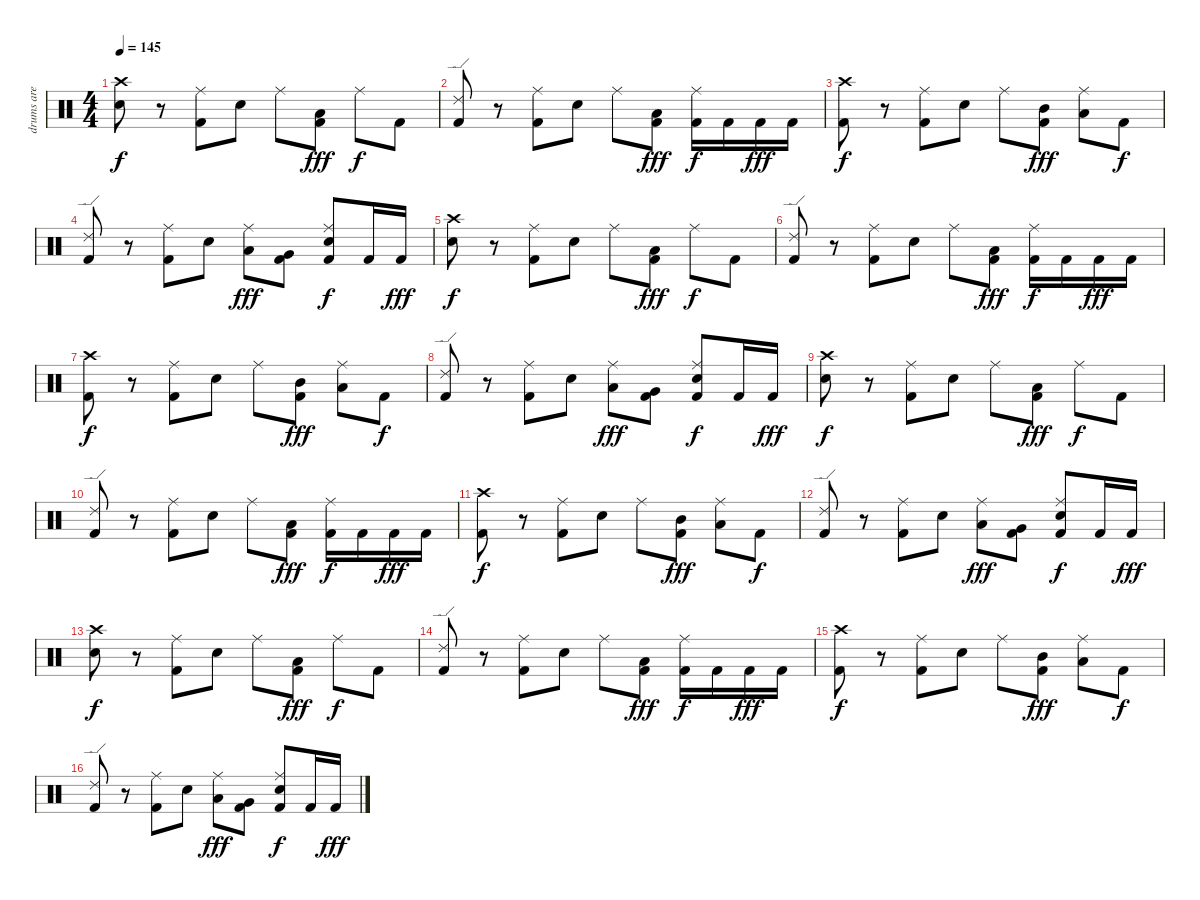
\track ("drums are cool   >.<" "drums are ") {instrument percussion}
\staff {score}
\articulation defaults
\ts (4 4)
\tempo 145
\clef neutral
\ks c
("Crash high (hit)" "Snare (hit) 2").8{dy f volume 14} r.8 ("Ride (middle)" "Kick (hit) 2").8 "Snare (hit) 2".8 "Ride (middle)".8 ("Low Tom (hit)" "Kick (hit) 2").8{dy fff} "Ride (middle)".8{dy f} "Kick (hit) 2".8 |
("Ride (edge) 2" "Kick (hit) 2").8 r.8 ("Ride (middle)" "Kick (hit) 2").8 "Snare (hit) 2".8 "Ride (middle)".8 ("Low Tom (hit)" "Kick (hit) 2").8{dy fff} ("Ride (middle)" "Kick (hit) 2").16{dy f} "Kick (hit) 2".16 "Kick (hit) 2".16{dy fff} "Kick (hit) 2".16 |
("Crash high (hit)" "Kick (hit) 2").8{dy f} r.8 ("Ride (middle)" "Kick (hit) 2").8 "Snare (hit) 2".8 "Ride (middle)".8 ("Mid Tom (hit)" "Kick (hit) 2").8{dy fff} ("Ride (middle)" "Low Tom (hit)").8 "Kick (hit) 2".8{dy f} |
("Ride (edge) 2" "Kick (hit) 2").8 r.8 ("Ride (middle)" "Kick (hit) 2").8 "Snare (hit) 2".8 ("Ride (middle)" "Low Tom (hit)").8{dy fff} ("Very Low Tom (hit)" "Kick (hit) 2").8 ("Ride (middle)" "Snare (hit) 2" "Kick (hit) 2").8{dy f} "Kick (hit) 2".16 "Kick (hit) 2".16{dy fff} |
("Crash high (hit)" "Snare (hit) 2").8{dy f} r.8 ("Ride (middle)" "Kick (hit) 2").8 "Snare (hit) 2".8 "Ride (middle)".8 ("Low Tom (hit)" "Kick (hit) 2").8{dy fff} "Ride (middle)".8{dy f} "Kick (hit) 2".8 |
("Ride (edge) 2" "Kick (hit) 2").8 r.8 ("Ride (middle)" "Kick (hit) 2").8 "Snare (hit) 2".8 "Ride (middle)".8 ("Low Tom (hit)" "Kick (hit) 2").8{dy fff} ("Ride (middle)" "Kick (hit) 2").16{dy f} "Kick (hit) 2".16 "Kick (hit) 2".16{dy fff} "Kick (hit) 2".16 |
("Crash high (hit)" "Kick (hit) 2").8{dy f} r.8 ("Ride (middle)" "Kick (hit) 2").8 "Snare (hit) 2".8 "Ride (middle)".8 ("Mid Tom (hit)" "Kick (hit) 2").8{dy fff} ("Ride (middle)" "Low Tom (hit)").8 "Kick (hit) 2".8{dy f} |
("Ride (edge) 2" "Kick (hit) 2").8 r.8 ("Ride (middle)" "Kick (hit) 2").8 "Snare (hit) 2".8 ("Ride (middle)" "Low Tom (hit)").8{dy fff} ("Very Low Tom (hit)" "Kick (hit) 2").8 ("Ride (middle)" "Snare (hit) 2" "Kick (hit) 2").8{dy f} "Kick (hit) 2".16 "Kick (hit) 2".16{dy fff} |
("Crash high (hit)" "Snare (hit) 2").8{dy f} r.8 ("Ride (middle)" "Kick (hit) 2").8 "Snare (hit) 2".8 "Ride (middle)".8 ("Low Tom (hit)" "Kick (hit) 2").8{dy fff} "Ride (middle)".8{dy f} "Kick (hit) 2".8 |
("Ride (edge) 2" "Kick (hit) 2").8 r.8 ("Ride (middle)" "Kick (hit) 2").8 "Snare (hit) 2".8 "Ride (middle)".8 ("Low Tom (hit)" "Kick (hit) 2").8{dy fff} ("Ride (middle)" "Kick (hit) 2").16{dy f} "Kick (hit) 2".16 "Kick (hit) 2".16{dy fff} "Kick (hit) 2".16 |
("Crash high (hit)" "Kick (hit) 2").8{dy f} r.8 ("Ride (middle)" "Kick (hit) 2").8 "Snare (hit) 2".8 "Ride (middle)".8 ("Mid Tom (hit)" "Kick (hit) 2").8{dy fff} ("Ride (middle)" "Low Tom (hit)").8 "Kick (hit) 2".8{dy f} |
("Ride (edge) 2" "Kick (hit) 2").8 r.8 ("Ride (middle)" "Kick (hit) 2").8 "Snare (hit) 2".8 ("Ride (middle)" "Low Tom (hit)").8{dy fff} ("Very Low Tom (hit)" "Kick (hit) 2").8 ("Ride (middle)" "Snare (hit) 2" "Kick (hit) 2").8{dy f} "Kick (hit) 2".16 "Kick (hit) 2".16{dy fff} |
("Crash high (hit)" "Snare (hit) 2").8{dy f} r.8 ("Ride (middle)" "Kick (hit) 2").8 "Snare (hit) 2".8 "Ride (middle)".8 ("Low Tom (hit)" "Kick (hit) 2").8{dy fff} "Ride (middle)".8{dy f} "Kick (hit) 2".8 |
("Ride (edge) 2" "Kick (hit) 2").8 r.8 ("Ride (middle)" "Kick (hit) 2").8 "Snare (hit) 2".8 "Ride (middle)".8 ("Low Tom (hit)" "Kick (hit) 2").8{dy fff} ("Ride (middle)" "Kick (hit) 2").16{dy f} "Kick (hit) 2".16 "Kick (hit) 2".16{dy fff} "Kick (hit) 2".16 |
("Crash high (hit)" "Kick (hit) 2").8{dy f} r.8 ("Ride (middle)" "Kick (hit) 2").8 "Snare (hit) 2".8 "Ride (middle)".8 ("Mid Tom (hit)" "Kick (hit) 2").8{dy fff} ("Ride (middle)" "Low Tom (hit)").8 "Kick (hit) 2".8{dy f} |
("Ride (edge) 2" "Kick (hit) 2").8 r.8 ("Ride (middle)" "Kick (hit) 2").8 "Snare (hit) 2".8 ("Ride (middle)" "Low Tom (hit)").8{dy fff} ("Very Low Tom (hit)" "Kick (hit) 2").8 ("Ride (middle)" "Snare (hit) 2" "Kick (hit) 2").8{dy f} "Kick (hit) 2".16 "Kick (hit) 2".16{dy fff}
